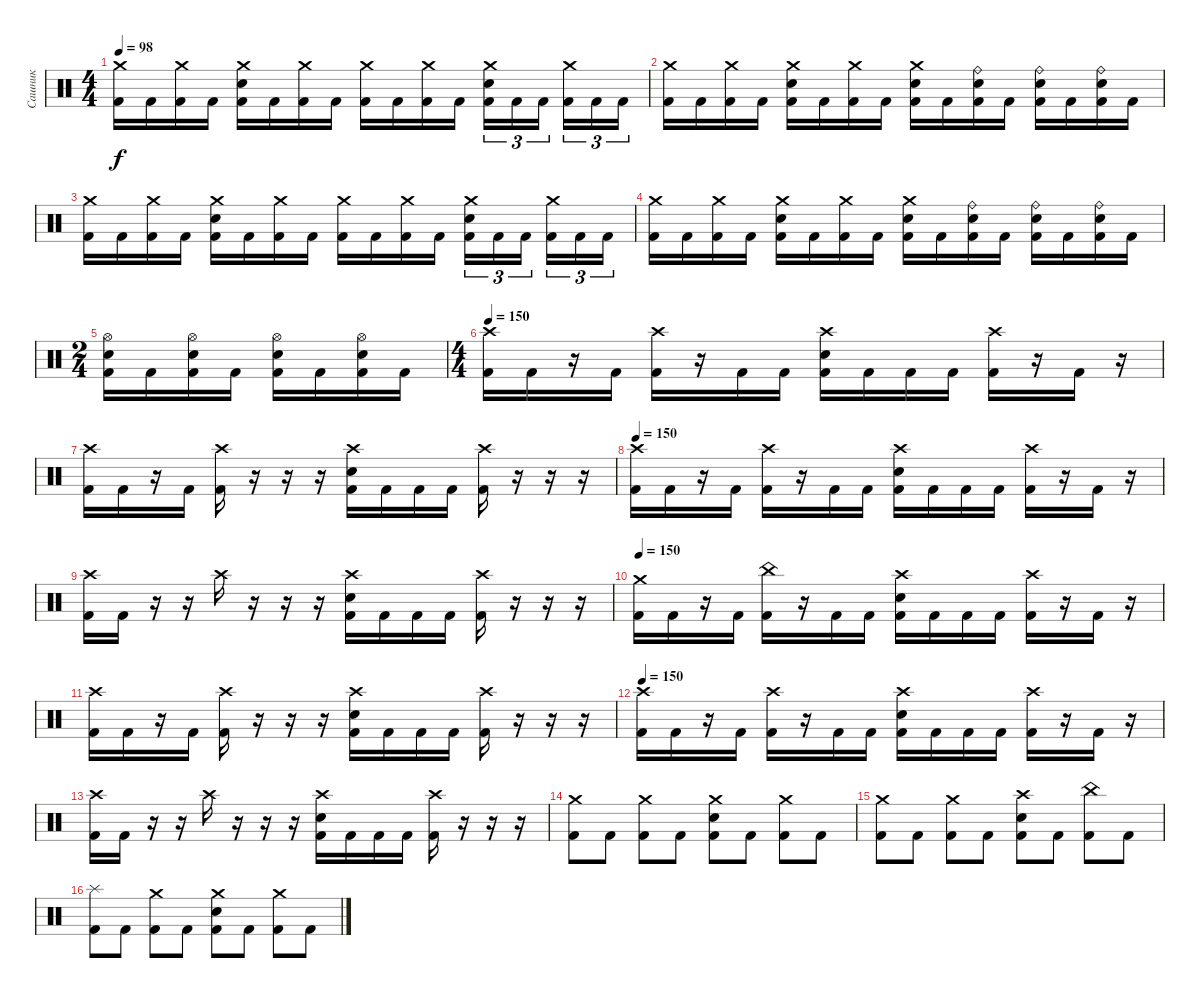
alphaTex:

\track ("Сашник" "Сашник") {instrument percussion}
\staff {score}
\articulation defaults
\ts (4 4)
\tempo 98
\clef neutral
\ks c
("Crash medium (hit)" "Kick (hit) 2").16{dy f} "Kick (hit) 2".16 ("Crash medium (hit)" "Kick (hit) 2").16 "Kick (hit) 2".16 ("Crash medium (hit)" "Electric Snare (hit)" "Kick (hit) 2").16 "Kick (hit) 2".16 ("Crash medium (hit)" "Kick (hit) 2").16 "Kick (hit) 2".16 ("Crash medium (hit)" "Kick (hit) 2").16 "Kick (hit) 2".16 ("Crash medium (hit)" "Kick (hit) 2").16 "Kick (hit) 2".16 ("Crash medium (hit)" "Electric Snare (hit)" "Kick (hit) 2").16{tu (3 2)} "Kick (hit) 2".16{tu (3 2)} "Kick (hit) 2".16{tu (3 2) beam splitsecondary} ("Crash medium (hit)" "Kick (hit) 2").16{tu (3 2)} "Kick (hit) 2".16{tu (3 2)} "Kick (hit) 2".16{tu (3 2)} |
("Crash medium (hit)" "Kick (hit) 2").16 "Kick (hit) 2".16 ("Crash medium (hit)" "Kick (hit) 2").16 "Kick (hit) 2".16 ("Crash medium (hit)" "Electric Snare (hit)" "Kick (hit) 2").16 "Kick (hit) 2".16 ("Crash medium (hit)" "Kick (hit) 2").16 "Kick (hit) 2".16 ("Crash medium (hit)" "Electric Snare (hit)" "Kick (hit) 2").16 "Kick (hit) 2".16 ("Ride (bell)" "Electric Snare (hit)" "Kick (hit) 2").16 "Kick (hit) 2".16 ("Ride (bell)" "Electric Snare (hit)" "Kick (hit) 2").16 "Kick (hit) 2".16 ("Ride (bell)" "Electric Snare (hit)" "Kick (hit) 2").16 "Kick (hit) 2".16 |
("Crash medium (hit)" "Kick (hit) 2").16 "Kick (hit) 2".16 ("Crash medium (hit)" "Kick (hit) 2").16 "Kick (hit) 2".16 ("Crash medium (hit)" "Electric Snare (hit)" "Kick (hit) 2").16 "Kick (hit) 2".16 ("Crash medium (hit)" "Kick (hit) 2").16 "Kick (hit) 2".16 ("Crash medium (hit)" "Kick (hit) 2").16 "Kick (hit) 2".16 ("Crash medium (hit)" "Kick (hit) 2").16 "Kick (hit) 2".16 ("Crash medium (hit)" "Electric Snare (hit)" "Kick (hit) 2").16{tu (3 2)} "Kick (hit) 2".16{tu (3 2)} "Kick (hit) 2".16{tu (3 2) beam splitsecondary} ("Crash medium (hit)" "Kick (hit) 2").16{tu (3 2)} "Kick (hit) 2".16{tu (3 2)} "Kick (hit) 2".16{tu (3 2)} |
("Crash medium (hit)" "Kick (hit) 2").16 "Kick (hit) 2".16 ("Crash medium (hit)" "Kick (hit) 2").16 "Kick (hit) 2".16 ("Crash medium (hit)" "Electric Snare (hit)" "Kick (hit) 2").16 "Kick (hit) 2".16 ("Crash medium (hit)" "Kick (hit) 2").16 "Kick (hit) 2".16 ("Crash medium (hit)" "Electric Snare (hit)" "Kick (hit) 2").16 "Kick (hit) 2".16 ("Ride (bell)" "Electric Snare (hit)" "Kick (hit) 2").16 "Kick (hit) 2".16 ("Ride (bell)" "Electric Snare (hit)" "Kick (hit) 2").16 "Kick (hit) 2".16 ("Ride (bell)" "Electric Snare (hit)" "Kick (hit) 2").16 "Kick (hit) 2".16 |
\ts (2 4)
("Hi-Hat (open)" "Electric Snare (hit)" "Kick (hit) 2").16 "Kick (hit) 2".16 ("Hi-Hat (open)" "Electric Snare (hit)" "Kick (hit) 2").16 "Kick (hit) 2".16 ("Hi-Hat (open)" "Electric Snare (hit)" "Kick (hit) 2").16 "Kick (hit) 2".16 ("Hi-Hat (open)" "Electric Snare (hit)" "Kick (hit) 2").16 "Kick (hit) 2".16 |
\ts (4 4)
\tempo 150
("Crash high (hit)" "Kick (hit) 2").16 "Kick (hit) 2".16 r.16 "Kick (hit) 2".16 ("Crash high (hit)" "Kick (hit) 2").16 r.16 "Kick (hit) 2".16 "Kick (hit) 2".16 ("Crash high (hit)" "Electric Snare (hit)" "Kick (hit) 2").16 "Kick (hit) 2".16 "Kick (hit) 2".16 "Kick (hit) 2".16 ("Crash high (hit)" "Kick (hit) 2").16 r.16 "Kick (hit) 2".16 r.16 |
("Crash high (hit)" "Kick (hit) 2").16 "Kick (hit) 2".16 r.16 "Kick (hit) 2".16 ("Crash high (hit)" "Kick (hit) 2").16 r.16 r.16 r.16 ("Crash high (hit)" "Electric Snare (hit)" "Kick (hit) 2").16 "Kick (hit) 2".16 "Kick (hit) 2".16 "Kick (hit) 2".16 ("Crash high (hit)" "Kick (hit) 2").16 r.16 r.16 r.16 |
\tempo 150
("Crash high (hit)" "Kick (hit) 2").16 "Kick (hit) 2".16 r.16 "Kick (hit) 2".16 ("Crash high (hit)" "Kick (hit) 2").16 r.16 "Kick (hit) 2".16 "Kick (hit) 2".16 ("Crash high (hit)" "Electric Snare (hit)" "Kick (hit) 2").16 "Kick (hit) 2".16 "Kick (hit) 2".16 "Kick (hit) 2".16 ("Crash high (hit)" "Kick (hit) 2").16 r.16 "Kick (hit) 2".16 r.16 |
("Crash high (hit)" "Kick (hit) 2").16 "Kick (hit) 2".16 r.16 r.16 "Crash high (hit)".16 r.16 r.16 r.16 ("Crash high (hit)" "Electric Snare (hit)" "Kick (hit) 2").16 "Kick (hit) 2".16 "Kick (hit) 2".16 "Kick (hit) 2".16 ("Crash high (hit)" "Kick (hit) 2").16 r.16 r.16 r.16 |
\tempo 150
("Crash medium (hit)" "Kick (hit) 2").16 "Kick (hit) 2".16 r.16 "Kick (hit) 2".16 ("China (hit)" "Kick (hit) 2").16 r.16 "Kick (hit) 2".16 "Kick (hit) 2".16 ("Crash high (hit)" "Electric Snare (hit)" "Kick (hit) 2").16 "Kick (hit) 2".16 "Kick (hit) 2".16 "Kick (hit) 2".16 ("Crash high (hit)" "Kick (hit) 2").16 r.16 "Kick (hit) 2".16 r.16 |
("Crash high (hit)" "Kick (hit) 2").16 "Kick (hit) 2".16 r.16 "Kick (hit) 2".16 ("Crash high (hit)" "Kick (hit) 2").16 r.16 r.16 r.16 ("Crash high (hit)" "Electric Snare (hit)" "Kick (hit) 2").16 "Kick (hit) 2".16 "Kick (hit) 2".16 "Kick (hit) 2".16 ("Crash high (hit)" "Kick (hit) 2").16 r.16 r.16 r.16 |
\tempo 150
("Crash high (hit)" "Kick (hit) 2").16 "Kick (hit) 2".16 r.16 "Kick (hit) 2".16 ("Crash high (hit)" "Kick (hit) 2").16 r.16 "Kick (hit) 2".16 "Kick (hit) 2".16 ("Crash high (hit)" "Electric Snare (hit)" "Kick (hit) 2").16 "Kick (hit) 2".16 "Kick (hit) 2".16 "Kick (hit) 2".16 ("Crash high (hit)" "Kick (hit) 2").16 r.16 "Kick (hit) 2".16 r.16 |
("Crash high (hit)" "Kick (hit) 2").16 "Kick (hit) 2".16 r.16 r.16 "Crash high (hit)".16 r.16 r.16 r.16 ("Crash high (hit)" "Electric Snare (hit)" "Kick (hit) 2").16 "Kick (hit) 2".16 "Kick (hit) 2".16 "Kick (hit) 2".16 ("Crash high (hit)" "Kick (hit) 2").16 r.16 r.16 r.16 |
("Crash medium (hit)" "Kick (hit) 2").8 "Kick (hit) 2".8 ("Crash medium (hit)" "Kick (hit) 2").8 "Kick (hit) 2".8 ("Crash medium (hit)" "Electric Snare (hit)" "Kick (hit) 2").8 "Kick (hit) 2".8 ("Crash medium (hit)" "Kick (hit) 2").8 "Kick (hit) 2".8 |
("Crash medium (hit)" "Kick (hit) 2").8 "Kick (hit) 2".8 ("Crash medium (hit)" "Kick (hit) 2").8 "Kick (hit) 2".8 ("Crash high (hit)" "Electric Snare (hit)" "Kick (hit) 2").8 "Kick (hit) 2".8 ("China (hit)" "Kick (hit) 2").8 "Kick (hit) 2".8 |
("Splash (hit)" "Kick (hit) 2").8 "Kick (hit) 2".8 ("Crash medium (hit)" "Kick (hit) 2").8 "Kick (hit) 2".8 ("Crash medium (hit)" "Electric Snare (hit)" "Kick (hit) 2").8 "Kick (hit) 2".8 ("Crash medium (hit)" "Kick (hit) 2").8 "Kick (hit) 2".8
